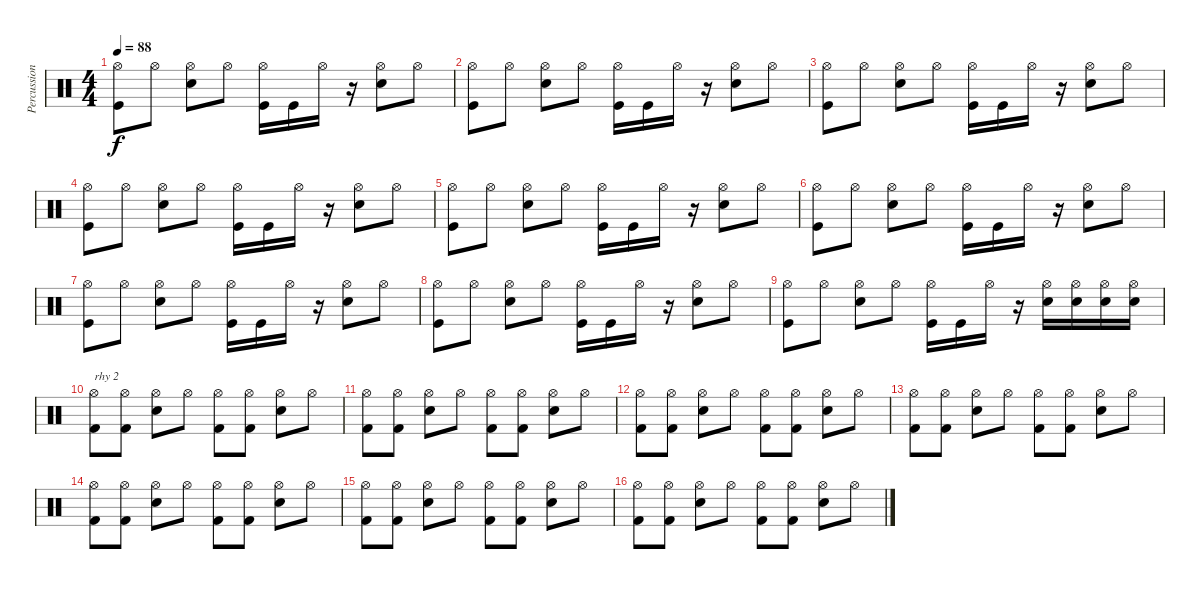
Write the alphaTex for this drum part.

\track ("Percussion" "Percussion") {instrument percussion}
\staff {score}
\articulation defaults
\ts (4 4)
\tempo 88
\clef neutral
\ks c
("Hi-Hat (open)" "Kick (hit)").8{dy f} "Hi-Hat (open)".8 ("Hi-Hat (open)" "Snare (hit) 2").8 "Hi-Hat (open)".8 ("Hi-Hat (open)" "Kick (hit)").16 "Kick (hit)".16 "Hi-Hat (open)".16 r.16 ("Hi-Hat (open)" "Snare (hit) 2").8 "Hi-Hat (open)".8 |
("Hi-Hat (open)" "Kick (hit)").8 "Hi-Hat (open)".8 ("Hi-Hat (open)" "Snare (hit) 2").8 "Hi-Hat (open)".8 ("Hi-Hat (open)" "Kick (hit)").16 "Kick (hit)".16 "Hi-Hat (open)".16 r.16 ("Hi-Hat (open)" "Snare (hit) 2").8 "Hi-Hat (open)".8 |
("Hi-Hat (open)" "Kick (hit)").8 "Hi-Hat (open)".8 ("Hi-Hat (open)" "Snare (hit) 2").8 "Hi-Hat (open)".8 ("Hi-Hat (open)" "Kick (hit)").16 "Kick (hit)".16 "Hi-Hat (open)".16 r.16 ("Hi-Hat (open)" "Snare (hit) 2").8 "Hi-Hat (open)".8 |
("Hi-Hat (open)" "Kick (hit)").8 "Hi-Hat (open)".8 ("Hi-Hat (open)" "Snare (hit) 2").8 "Hi-Hat (open)".8 ("Hi-Hat (open)" "Kick (hit)").16 "Kick (hit)".16 "Hi-Hat (open)".16 r.16 ("Hi-Hat (open)" "Snare (hit) 2").8 "Hi-Hat (open)".8 |
("Hi-Hat (open)" "Kick (hit)").8 "Hi-Hat (open)".8 ("Hi-Hat (open)" "Snare (hit) 2").8 "Hi-Hat (open)".8 ("Hi-Hat (open)" "Kick (hit)").16 "Kick (hit)".16 "Hi-Hat (open)".16 r.16 ("Hi-Hat (open)" "Snare (hit) 2").8 "Hi-Hat (open)".8 |
("Hi-Hat (open)" "Kick (hit)").8 "Hi-Hat (open)".8 ("Hi-Hat (open)" "Snare (hit) 2").8 "Hi-Hat (open)".8 ("Hi-Hat (open)" "Kick (hit)").16 "Kick (hit)".16 "Hi-Hat (open)".16 r.16 ("Hi-Hat (open)" "Snare (hit) 2").8 "Hi-Hat (open)".8 |
("Hi-Hat (open)" "Kick (hit)").8 "Hi-Hat (open)".8 ("Hi-Hat (open)" "Snare (hit) 2").8 "Hi-Hat (open)".8 ("Hi-Hat (open)" "Kick (hit)").16 "Kick (hit)".16 "Hi-Hat (open)".16 r.16 ("Hi-Hat (open)" "Snare (hit) 2").8 "Hi-Hat (open)".8 |
("Hi-Hat (open)" "Kick (hit)").8 "Hi-Hat (open)".8 ("Hi-Hat (open)" "Snare (hit) 2").8 "Hi-Hat (open)".8 ("Hi-Hat (open)" "Kick (hit)").16 "Kick (hit)".16 "Hi-Hat (open)".16 r.16 ("Hi-Hat (open)" "Snare (hit) 2").8 "Hi-Hat (open)".8 |
("Hi-Hat (open)" "Kick (hit)").8 "Hi-Hat (open)".8 ("Hi-Hat (open)" "Snare (hit) 2").8 "Hi-Hat (open)".8 ("Hi-Hat (open)" "Kick (hit)").16 "Kick (hit)".16 "Hi-Hat (open)".16 r.16 ("Hi-Hat (open)" "Snare (hit) 2").16 ("Hi-Hat (open)" "Snare (hit) 2").16 ("Hi-Hat (open)" "Snare (hit) 2").16 ("Hi-Hat (open)" "Snare (hit) 2").16 |
("Hi-Hat (open)" "Kick (hit) 2").8{txt "rhy 2"} ("Hi-Hat (open)" "Kick (hit) 2").8 ("Hi-Hat (open)" "Snare (hit) 2").8 "Hi-Hat (open)".8 ("Hi-Hat (open)" "Kick (hit) 2").8 ("Hi-Hat (open)" "Kick (hit) 2").8 ("Hi-Hat (open)" "Snare (hit) 2").8 "Hi-Hat (open)".8 |
("Hi-Hat (open)" "Kick (hit) 2").8 ("Hi-Hat (open)" "Kick (hit) 2").8 ("Hi-Hat (open)" "Snare (hit) 2").8 "Hi-Hat (open)".8 ("Hi-Hat (open)" "Kick (hit) 2").8 ("Hi-Hat (open)" "Kick (hit) 2").8 ("Hi-Hat (open)" "Snare (hit) 2").8 "Hi-Hat (open)".8 |
("Hi-Hat (open)" "Kick (hit) 2").8 ("Hi-Hat (open)" "Kick (hit) 2").8 ("Hi-Hat (open)" "Snare (hit) 2").8 "Hi-Hat (open)".8 ("Hi-Hat (open)" "Kick (hit) 2").8 ("Hi-Hat (open)" "Kick (hit) 2").8 ("Hi-Hat (open)" "Snare (hit) 2").8 "Hi-Hat (open)".8 |
("Hi-Hat (open)" "Kick (hit) 2").8 ("Hi-Hat (open)" "Kick (hit) 2").8 ("Hi-Hat (open)" "Snare (hit) 2").8 "Hi-Hat (open)".8 ("Hi-Hat (open)" "Kick (hit) 2").8 ("Hi-Hat (open)" "Kick (hit) 2").8 ("Hi-Hat (open)" "Snare (hit) 2").8 "Hi-Hat (open)".8 |
("Hi-Hat (open)" "Kick (hit) 2").8 ("Hi-Hat (open)" "Kick (hit) 2").8 ("Hi-Hat (open)" "Snare (hit) 2").8 "Hi-Hat (open)".8 ("Hi-Hat (open)" "Kick (hit) 2").8 ("Hi-Hat (open)" "Kick (hit) 2").8 ("Hi-Hat (open)" "Snare (hit) 2").8 "Hi-Hat (open)".8 |
("Hi-Hat (open)" "Kick (hit) 2").8 ("Hi-Hat (open)" "Kick (hit) 2").8 ("Hi-Hat (open)" "Snare (hit) 2").8 "Hi-Hat (open)".8 ("Hi-Hat (open)" "Kick (hit) 2").8 ("Hi-Hat (open)" "Kick (hit) 2").8 ("Hi-Hat (open)" "Snare (hit) 2").8 "Hi-Hat (open)".8 |
("Hi-Hat (open)" "Kick (hit) 2").8 ("Hi-Hat (open)" "Kick (hit) 2").8 ("Hi-Hat (open)" "Snare (hit) 2").8 "Hi-Hat (open)".8 ("Hi-Hat (open)" "Kick (hit) 2").8 ("Hi-Hat (open)" "Kick (hit) 2").8 ("Hi-Hat (open)" "Snare (hit) 2").8 "Hi-Hat (open)".8
